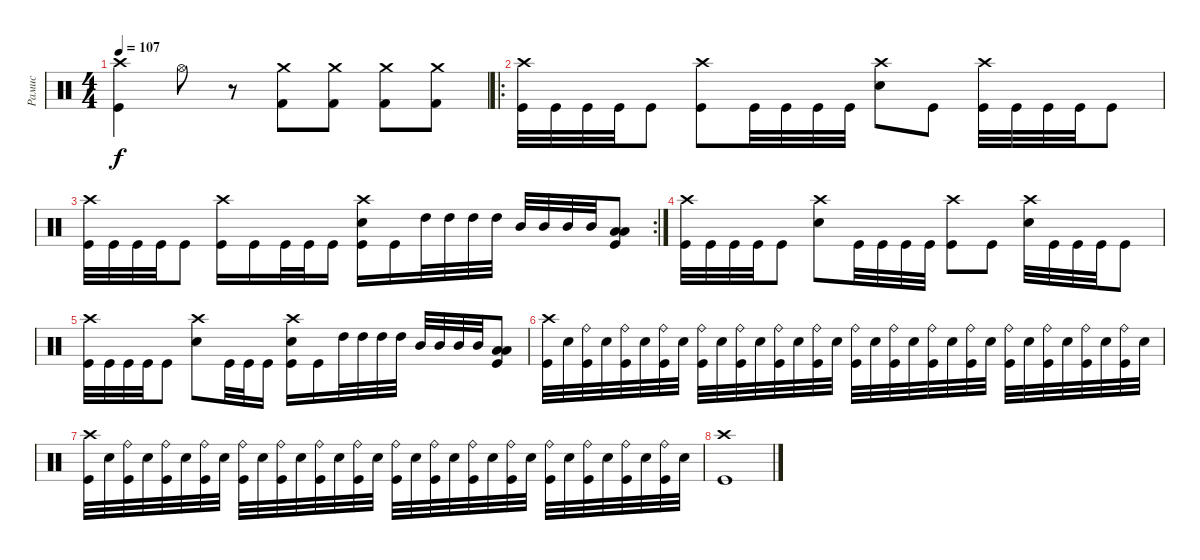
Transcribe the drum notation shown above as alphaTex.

\track ("Рамис" "Рамис") {instrument percussion}
\staff {score}
\articulation defaults
\ts (4 4)
\tempo 107
\clef neutral
\ks c
("Crash high (hit)" "Kick (hit)").4{dy f} "Hi-Hat (open)".8 r.8 ("Crash medium (hit)" "Kick (hit) 2").8 ("Crash medium (hit)" "Kick (hit) 2").8 ("Crash medium (hit)" "Kick (hit) 2").8 ("Crash medium (hit)" "Kick (hit) 2").8 |
\ro
("Crash high (hit)" "Kick (hit)").32 "Kick (hit)".32 "Kick (hit)".32 "Kick (hit)".32 "Kick (hit)".8 ("Crash high (hit)" "Kick (hit)").8 "Kick (hit)".32 "Kick (hit)".32 "Kick (hit)".32 "Kick (hit)".32 ("Crash high (hit)" "Electric Snare (hit)").8 "Kick (hit)".8 ("Crash high (hit)" "Kick (hit)").32 "Kick (hit)".32 "Kick (hit)".32 "Kick (hit)".32 "Kick (hit)".8 |
\rc 2
("Crash high (hit)" "Kick (hit)").32 "Kick (hit)".32 "Kick (hit)".32 "Kick (hit)".32 "Kick (hit)".8 ("Crash high (hit)" "Kick (hit)").16 "Kick (hit)".16 "Kick (hit)".32 "Kick (hit)".32 "Kick (hit)".16 ("Crash high (hit)" "Electric Snare (hit)" "Kick (hit)").16 "Kick (hit)".16 "High Tom (hit)".32 "High Tom (hit)".32 "High Tom (hit)".32 "High Tom (hit)".32 "Mid Tom (hit)".32 "Mid Tom (hit)".32 "Mid Tom (hit)".32 "Mid Tom (hit)".32 ("Low Tom (hit)" "Low Floor Tom (hit)" "Kick (hit)").8 |
("Crash high (hit)" "Kick (hit)").32 "Kick (hit)".32 "Kick (hit)".32 "Kick (hit)".32 "Kick (hit)".8 ("Crash high (hit)" "Electric Snare (hit)").8 "Kick (hit)".32 "Kick (hit)".32 "Kick (hit)".32 "Kick (hit)".32 ("Crash high (hit)" "Kick (hit)").8 "Kick (hit)".8 ("Crash high (hit)" "Electric Snare (hit)").32 "Kick (hit)".32 "Kick (hit)".32 "Kick (hit)".32 "Kick (hit)".8 |
("Crash high (hit)" "Kick (hit)").32 "Kick (hit)".32 "Kick (hit)".32 "Kick (hit)".32 "Kick (hit)".8 ("Crash high (hit)" "Electric Snare (hit)").8 "Kick (hit)".32 "Kick (hit)".32 "Kick (hit)".16 ("Crash high (hit)" "Electric Snare (hit)" "Kick (hit)").16 "Kick (hit)".16 "High Tom (hit)".32 "High Tom (hit)".32 "High Tom (hit)".32 "High Tom (hit)".32 "Mid Tom (hit)".32 "Mid Tom (hit)".32 "Mid Tom (hit)".32 "Mid Tom (hit)".32 ("Low Tom (hit)" "Low Floor Tom (hit)" "Kick (hit)").8 |
("Crash high (hit)" "Kick (hit)").32 "Electric Snare (hit)".32 ("Ride (bell)" "Kick (hit)").32 "Electric Snare (hit)".32 ("Ride (bell)" "Kick (hit)").32 "Electric Snare (hit)".32 ("Ride (bell)" "Kick (hit)").32 "Electric Snare (hit)".32 ("Ride (bell)" "Kick (hit)").32 "Electric Snare (hit)".32 ("Ride (bell)" "Kick (hit)").32 "Electric Snare (hit)".32 ("Ride (bell)" "Kick (hit)").32 "Electric Snare (hit)".32 ("Ride (bell)" "Kick (hit)").32 "Electric Snare (hit)".32 ("Ride (bell)" "Kick (hit)").32 "Electric Snare (hit)".32 ("Ride (bell)" "Kick (hit)").32 "Electric Snare (hit)".32 ("Ride (bell)" "Kick (hit)").32 "Electric Snare (hit)".32 ("Ride (bell)" "Kick (hit)").32 "Electric Snare (hit)".32 ("Ride (bell)" "Kick (hit)").32 "Electric Snare (hit)".32 ("Ride (bell)" "Kick (hit)").32 "Electric Snare (hit)".32 ("Ride (bell)" "Kick (hit)").32 "Electric Snare (hit)".32 ("Ride (bell)" "Kick (hit)").32 "Electric Snare (hit)".32 |
("Crash high (hit)" "Kick (hit)").32 "Electric Snare (hit)".32 ("Ride (bell)" "Kick (hit)").32 "Electric Snare (hit)".32 ("Ride (bell)" "Kick (hit)").32 "Electric Snare (hit)".32 ("Ride (bell)" "Kick (hit)").32 "Electric Snare (hit)".32 ("Ride (bell)" "Kick (hit)").32 "Electric Snare (hit)".32 ("Ride (bell)" "Kick (hit)").32 "Electric Snare (hit)".32 ("Ride (bell)" "Kick (hit)").32 "Electric Snare (hit)".32 ("Ride (bell)" "Kick (hit)").32 "Electric Snare (hit)".32 ("Ride (bell)" "Kick (hit)").32 "Electric Snare (hit)".32 ("Ride (bell)" "Kick (hit)").32 "Electric Snare (hit)".32 ("Ride (bell)" "Kick (hit)").32 "Electric Snare (hit)".32 ("Ride (bell)" "Kick (hit)").32 "Electric Snare (hit)".32 ("Ride (bell)" "Kick (hit)").32 "Electric Snare (hit)".32 ("Ride (bell)" "Kick (hit)").32 "Electric Snare (hit)".32 ("Ride (bell)" "Kick (hit)").32 "Electric Snare (hit)".32 ("Ride (bell)" "Kick (hit)").32 "Electric Snare (hit)".32 |
("Crash high (hit)" "Kick (hit)").1
